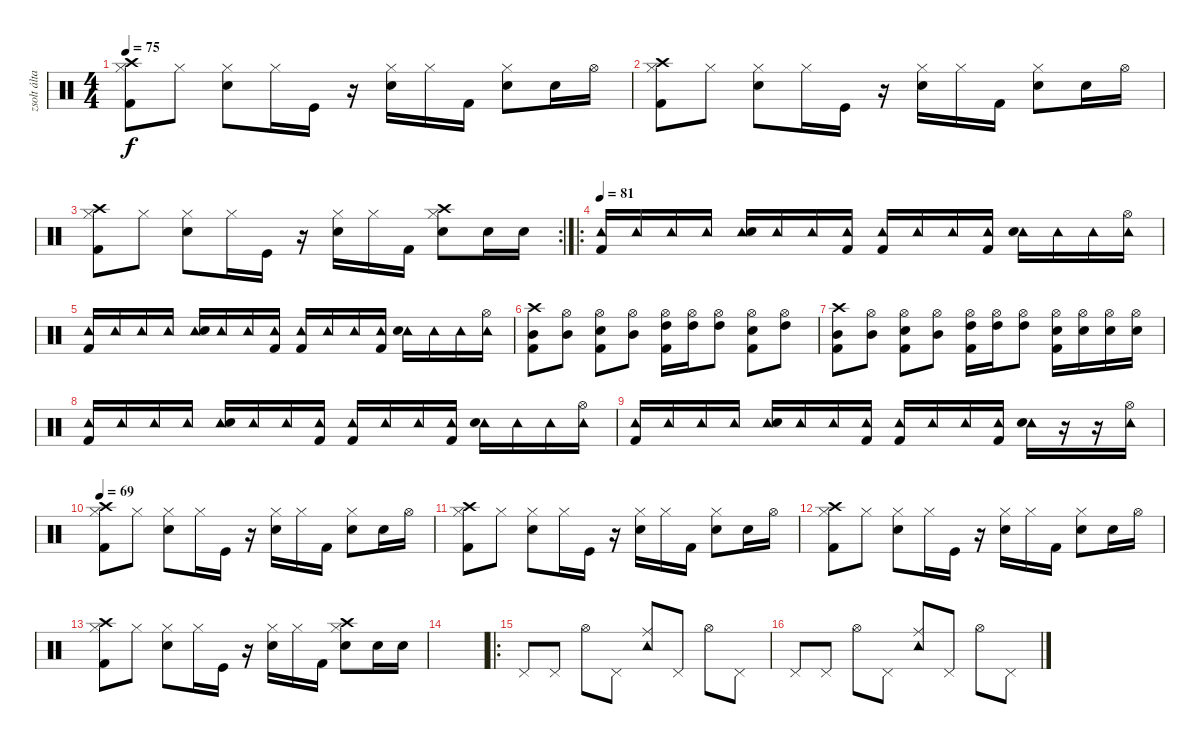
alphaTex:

\track ("zsolt által javított!!!!" "zsolt álta") {instrument percussion}
\staff {score}
\articulation defaults
\ts (4 4)
\tempo 75
\clef neutral
\ks c
("Hi-Hat (closed)" "Kick (hit) 2" "Crash high (hit)").8{dy f} "Hi-Hat (closed)".8 ("Hi-Hat (closed)" "Snare (hit) 2").8 "Hi-Hat (closed)".16 "Kick (hit)".16 r.16 ("Snare (hit) 2" "Hi-Hat (closed)").16 "Hi-Hat (closed)".16 "Kick (hit) 2".16 ("Snare (hit) 2" "Hi-Hat (closed)").8 "Snare (hit) 2".16 "Hi-Hat (open)".16 |
("Hi-Hat (closed)" "Kick (hit) 2" "Crash high (hit)").8 "Hi-Hat (closed)".8 ("Hi-Hat (closed)" "Snare (hit) 2").8 "Hi-Hat (closed)".16 "Kick (hit)".16 r.16 ("Snare (hit) 2" "Hi-Hat (closed)").16 "Hi-Hat (closed)".16 "Kick (hit) 2".16 ("Snare (hit) 2" "Hi-Hat (closed)").8 "Snare (hit) 2".16 "Hi-Hat (open)".16 |
\rc 2
("Hi-Hat (closed)" "Kick (hit) 2" "Crash high (hit)").8 "Hi-Hat (closed)".8 ("Hi-Hat (closed)" "Snare (hit) 2").8 "Hi-Hat (closed)".16 "Kick (hit)".16 r.16 ("Snare (hit) 2" "Hi-Hat (closed)").16 "Hi-Hat (closed)".16 "Kick (hit) 2".16 ("Crash high (hit)" "Snare (hit) 2" "Hi-Hat (closed)").8 "Snare (hit) 2".16 "Snare (hit) 2".16 |
\ro
\tempo 81
("Tambourine (hit)" "Kick (hit) 2").16 "Tambourine (hit)".16 "Tambourine (hit)".16 "Tambourine (hit)".16 ("Tambourine (hit)" "Snare (hit) 2").16 "Tambourine (hit)".16 "Tambourine (hit)".16 ("Tambourine (hit)" "Kick (hit) 2").16 ("Tambourine (hit)" "Kick (hit) 2").16 "Tambourine (hit)".16 "Tambourine (hit)".16 ("Tambourine (hit)" "Kick (hit) 2").16 ("Tambourine (hit)" "Snare (hit) 2").16 "Tambourine (hit)".16 "Tambourine (hit)".16 ("Tambourine (hit)" "Hi-Hat (open)").16 |
("Tambourine (hit)" "Kick (hit) 2").16 "Tambourine (hit)".16 "Tambourine (hit)".16 "Tambourine (hit)".16 ("Tambourine (hit)" "Snare (hit) 2").16 "Tambourine (hit)".16 "Tambourine (hit)".16 ("Tambourine (hit)" "Kick (hit) 2").16 ("Tambourine (hit)" "Kick (hit) 2").16 "Tambourine (hit)".16 "Tambourine (hit)".16 ("Tambourine (hit)" "Kick (hit) 2").16 ("Tambourine (hit)" "Snare (hit) 2").16 "Tambourine (hit)".16 "Tambourine (hit)".16 ("Tambourine (hit)" "Hi-Hat (open)").16 |
("Crash high (hit)" "Mid Tom (hit)" "Kick (hit) 2").8 ("Hi-Hat (open)" "Mid Tom (hit)").8 ("Hi-Hat (open)" "Snare (hit) 2" "Kick (hit) 2").8 ("Hi-Hat (open)" "Mid Tom (hit)").8 ("Hi-Hat (open)" "High Tom (hit)" "Kick (hit) 2").16 ("Hi-Hat (open)" "High Tom (hit)").16 ("Hi-Hat (open)" "High Tom (hit)").8 ("Hi-Hat (open)" "Snare (hit) 2" "Kick (hit) 2").8 ("Hi-Hat (open)" "High Tom (hit)").8 |
("Crash high (hit)" "Mid Tom (hit)" "Kick (hit) 2").8 ("Hi-Hat (open)" "Mid Tom (hit)").8 ("Hi-Hat (open)" "Snare (hit) 2" "Kick (hit) 2").8 ("Hi-Hat (open)" "Mid Tom (hit)").8 ("Hi-Hat (open)" "High Tom (hit)" "Kick (hit) 2").16 ("Hi-Hat (open)" "High Tom (hit)").16 ("Hi-Hat (open)" "High Tom (hit)").8 ("Hi-Hat (open)" "Snare (hit) 2" "Kick (hit) 2").16 ("Hi-Hat (open)" "Snare (hit) 2").16 ("Hi-Hat (open)" "Snare (hit) 2").16 ("Hi-Hat (open)" "Snare (hit) 2").16 |
("Tambourine (hit)" "Kick (hit) 2").16 "Tambourine (hit)".16 "Tambourine (hit)".16 "Tambourine (hit)".16 ("Tambourine (hit)" "Snare (hit) 2").16 "Tambourine (hit)".16 "Tambourine (hit)".16 ("Tambourine (hit)" "Kick (hit) 2").16 ("Tambourine (hit)" "Kick (hit) 2").16 "Tambourine (hit)".16 "Tambourine (hit)".16 ("Tambourine (hit)" "Kick (hit) 2").16 ("Tambourine (hit)" "Snare (hit) 2").16 "Tambourine (hit)".16 "Tambourine (hit)".16 ("Tambourine (hit)" "Hi-Hat (open)").16 |
("Tambourine (hit)" "Kick (hit) 2").16 "Tambourine (hit)".16 "Tambourine (hit)".16 "Tambourine (hit)".16 ("Tambourine (hit)" "Snare (hit) 2").16 "Tambourine (hit)".16 "Tambourine (hit)".16 ("Tambourine (hit)" "Kick (hit) 2").16 ("Tambourine (hit)" "Kick (hit) 2").16 "Tambourine (hit)".16 "Tambourine (hit)".16 ("Tambourine (hit)" "Kick (hit) 2").16 ("Tambourine (hit)" "Snare (hit) 2").16 r.16 r.16 ("Tambourine (hit)" "Hi-Hat (open)").16 |
\tempo 69
("Hi-Hat (closed)" "Kick (hit) 2" "Crash high (hit)").8 "Hi-Hat (closed)".8 ("Hi-Hat (closed)" "Snare (hit) 2").8 "Hi-Hat (closed)".16 "Kick (hit)".16 r.16 ("Snare (hit) 2" "Hi-Hat (closed)").16 "Hi-Hat (closed)".16 "Kick (hit) 2".16 ("Snare (hit) 2" "Hi-Hat (closed)").8 "Snare (hit) 2".16 "Hi-Hat (open)".16 |
("Hi-Hat (closed)" "Kick (hit) 2" "Crash high (hit)").8 "Hi-Hat (closed)".8 ("Hi-Hat (closed)" "Snare (hit) 2").8 "Hi-Hat (closed)".16 "Kick (hit)".16 r.16 ("Snare (hit) 2" "Hi-Hat (closed)").16 "Hi-Hat (closed)".16 "Kick (hit) 2".16 ("Snare (hit) 2" "Hi-Hat (closed)").8 "Snare (hit) 2".16 "Hi-Hat (open)".16 |
("Hi-Hat (closed)" "Kick (hit) 2" "Crash high (hit)").8 "Hi-Hat (closed)".8 ("Hi-Hat (closed)" "Snare (hit) 2").8 "Hi-Hat (closed)".16 "Kick (hit)".16 r.16 ("Snare (hit) 2" "Hi-Hat (closed)").16 "Hi-Hat (closed)".16 "Kick (hit) 2".16 ("Snare (hit) 2" "Hi-Hat (closed)").8 "Snare (hit) 2".16 "Hi-Hat (open)".16 |
("Hi-Hat (closed)" "Kick (hit) 2" "Crash high (hit)").8 "Hi-Hat (closed)".8 ("Hi-Hat (closed)" "Snare (hit) 2").8 "Hi-Hat (closed)".16 "Kick (hit)".16 r.16 ("Snare (hit) 2" "Hi-Hat (closed)").16 "Hi-Hat (closed)".16 "Kick (hit) 2".16 ("Crash high (hit)" "Snare (hit) 2" "Hi-Hat (closed)").8 "Snare (hit) 2".16 "Snare (hit) 2".16 |
|
\ro "Pedal Hi-Hat (hit)".8 "Pedal Hi-Hat (hit)".8 "Hi-Hat (open)".8 "Pedal Hi-Hat (hit)".8
("Ride (middle)" "Tambourine (hit)").8 "Pedal Hi-Hat (hit)".8 "Hi-Hat (open)".8 "Pedal Hi-Hat (hit)".8 |
"Pedal Hi-Hat (hit)".8 "Pedal Hi-Hat (hit)".8 "Hi-Hat (open)".8 "Pedal Hi-Hat (hit)".8 ("Ride (middle)" "Tambourine (hit)").8 "Pedal Hi-Hat (hit)".8 "Hi-Hat (open)".8 "Pedal Hi-Hat (hit)".8
